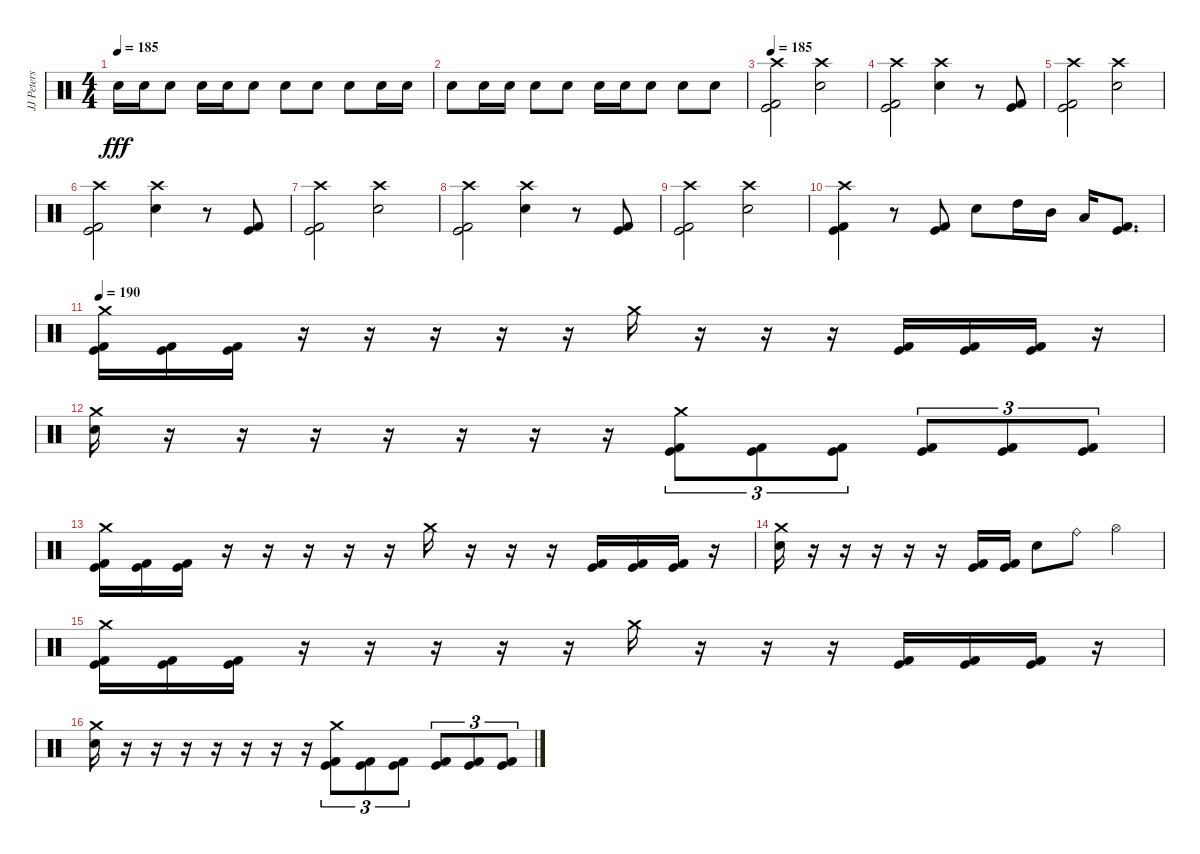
\track ("JJ Peters" "JJ Peters") {instrument percussion}
\staff {score}
\articulation defaults
\ts (4 4)
\tempo 185
\clef neutral
\ks c "Electric Snare (hit)".16{dy fff} "Electric Snare (hit)".16 "Electric Snare (hit)".8 "Electric Snare (hit)".16 "Electric Snare (hit)".16 "Electric Snare (hit)".8 "Electric Snare (hit)".8 "Electric Snare (hit)".8 "Electric Snare (hit)".8 "Electric Snare (hit)".16 "Electric Snare (hit)".16
|
"Electric Snare (hit)".8 "Electric Snare (hit)".16 "Electric Snare (hit)".16 "Electric Snare (hit)".8 "Electric Snare (hit)".8 "Electric Snare (hit)".16 "Electric Snare (hit)".16 "Electric Snare (hit)".8 "Electric Snare (hit)".8 "Electric Snare (hit)".8 |
\tempo 185
("Crash high (hit)" "Kick (hit)" "Kick (hit) 2").2 ("Crash high (hit)" "Electric Snare (hit)").2 |
("Crash high (hit)" "Kick (hit)" "Kick (hit) 2").2 ("Crash high (hit)" "Electric Snare (hit)").4 r.8 ("Kick (hit)" "Kick (hit) 2").8 |
("Crash high (hit)" "Kick (hit)" "Kick (hit) 2").2 ("Crash high (hit)" "Electric Snare (hit)").2 |
("Crash high (hit)" "Kick (hit)" "Kick (hit) 2").2 ("Crash high (hit)" "Electric Snare (hit)").4 r.8 ("Kick (hit)" "Kick (hit) 2").8 |
("Crash high (hit)" "Kick (hit)" "Kick (hit) 2").2 ("Crash high (hit)" "Electric Snare (hit)").2 |
("Crash high (hit)" "Kick (hit)" "Kick (hit) 2").2 ("Crash high (hit)" "Electric Snare (hit)").4 r.8 ("Kick (hit)" "Kick (hit) 2").8 |
("Crash high (hit)" "Kick (hit)" "Kick (hit) 2").2 ("Crash high (hit)" "Electric Snare (hit)").2 |
("Crash high (hit)" "Kick (hit)" "Kick (hit) 2").4 r.8 ("Kick (hit)" "Kick (hit) 2").8 "Electric Snare (hit)".8 "High Tom (hit)".16 "Mid Tom (hit)".16 "Low Tom (hit)".16 ("Kick (hit)" "Kick (hit) 2").8{d} |
\tempo 190
("Crash medium (hit)" "Kick (hit)" "Kick (hit) 2").16 ("Kick (hit)" "Kick (hit) 2").16 ("Kick (hit)" "Kick (hit) 2").16 r.16 r.16 r.16 r.16 r.16 "Crash medium (hit)".16 r.16 r.16 r.16 ("Kick (hit)" "Kick (hit) 2").16 ("Kick (hit)" "Kick (hit) 2").16 ("Kick (hit)" "Kick (hit) 2").16 r.16 |
("Crash medium (hit)" "Electric Snare (hit)").16 r.16 r.16 r.16 r.16 r.16 r.16 r.16 ("Crash medium (hit)" "Kick (hit)" "Kick (hit) 2").8{tu (3 2)} ("Kick (hit)" "Kick (hit) 2").8{tu (3 2)} ("Kick (hit)" "Kick (hit) 2").8{tu (3 2)} ("Kick (hit)" "Kick (hit) 2").8{tu (3 2)} ("Kick (hit)" "Kick (hit) 2").8{tu (3 2)} ("Kick (hit)" "Kick (hit) 2").8{tu (3 2)} |
("Crash medium (hit)" "Kick (hit)" "Kick (hit) 2").16 ("Kick (hit)" "Kick (hit) 2").16 ("Kick (hit)" "Kick (hit) 2").16 r.16 r.16 r.16 r.16 r.16 "Crash medium (hit)".16 r.16 r.16 r.16 ("Kick (hit)" "Kick (hit) 2").16 ("Kick (hit)" "Kick (hit) 2").16 ("Kick (hit)" "Kick (hit) 2").16 r.16 |
("Crash medium (hit)" "Electric Snare (hit)").16 r.16 r.16 r.16 r.16 r.16 ("Kick (hit)" "Kick (hit) 2").16 ("Kick (hit)" "Kick (hit) 2").16 "Electric Snare (hit)".8 "Ride (bell)".8 "Hi-Hat (open)".4 |
("Crash medium (hit)" "Kick (hit)" "Kick (hit) 2").16 ("Kick (hit)" "Kick (hit) 2").16 ("Kick (hit)" "Kick (hit) 2").16 r.16 r.16 r.16 r.16 r.16 "Crash medium (hit)".16 r.16 r.16 r.16 ("Kick (hit)" "Kick (hit) 2").16 ("Kick (hit)" "Kick (hit) 2").16 ("Kick (hit)" "Kick (hit) 2").16 r.16 |
("Crash medium (hit)" "Electric Snare (hit)").16 r.16 r.16 r.16 r.16 r.16 r.16 r.16 ("Crash medium (hit)" "Kick (hit)" "Kick (hit) 2").8{tu (3 2)} ("Kick (hit)" "Kick (hit) 2").8{tu (3 2)} ("Kick (hit)" "Kick (hit) 2").8{tu (3 2)} ("Kick (hit)" "Kick (hit) 2").8{tu (3 2)} ("Kick (hit)" "Kick (hit) 2").8{tu (3 2)} ("Kick (hit)" "Kick (hit) 2").8{tu (3 2)}
